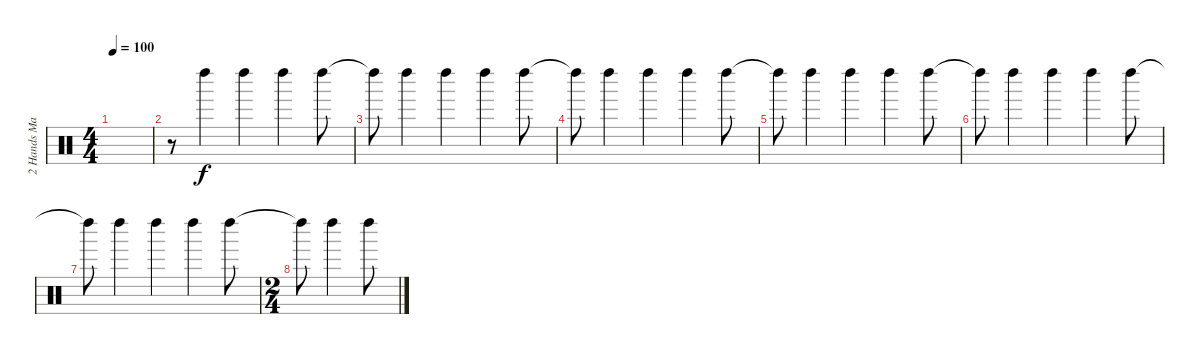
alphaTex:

\track ("2 Hands Maracas (Staff 2)" "2 Hands Ma") {instrument percussion}
\staff {score}
\articulation defaults
\ts (4 4)
\tempo 100
\clef neutral
\ks c
|
r.8 "Left Maraca (hit)".4 "Left Maraca (hit)".4 "Left Maraca (hit)".4 "Left Maraca (hit)".8 |
"Left Maraca (hit)"{t}.8 "Left Maraca (hit)".4 "Left Maraca (hit)".4 "Left Maraca (hit)".4 "Left Maraca (hit)".8 |
"Left Maraca (hit)"{t}.8 "Left Maraca (hit)".4 "Left Maraca (hit)".4 "Left Maraca (hit)".4 "Left Maraca (hit)".8 |
"Left Maraca (hit)"{t}.8 "Left Maraca (hit)".4 "Left Maraca (hit)".4 "Left Maraca (hit)".4 "Left Maraca (hit)".8 |
"Left Maraca (hit)"{t}.8 "Left Maraca (hit)".4 "Left Maraca (hit)".4 "Left Maraca (hit)".4 "Left Maraca (hit)".8 |
"Left Maraca (hit)"{t}.8 "Left Maraca (hit)".4 "Left Maraca (hit)".4 "Left Maraca (hit)".4 "Left Maraca (hit)".8 |
\ts (2 4)
"Left Maraca (hit)"{t}.8 "Left Maraca (hit)".4 "Left Maraca (hit)".8
